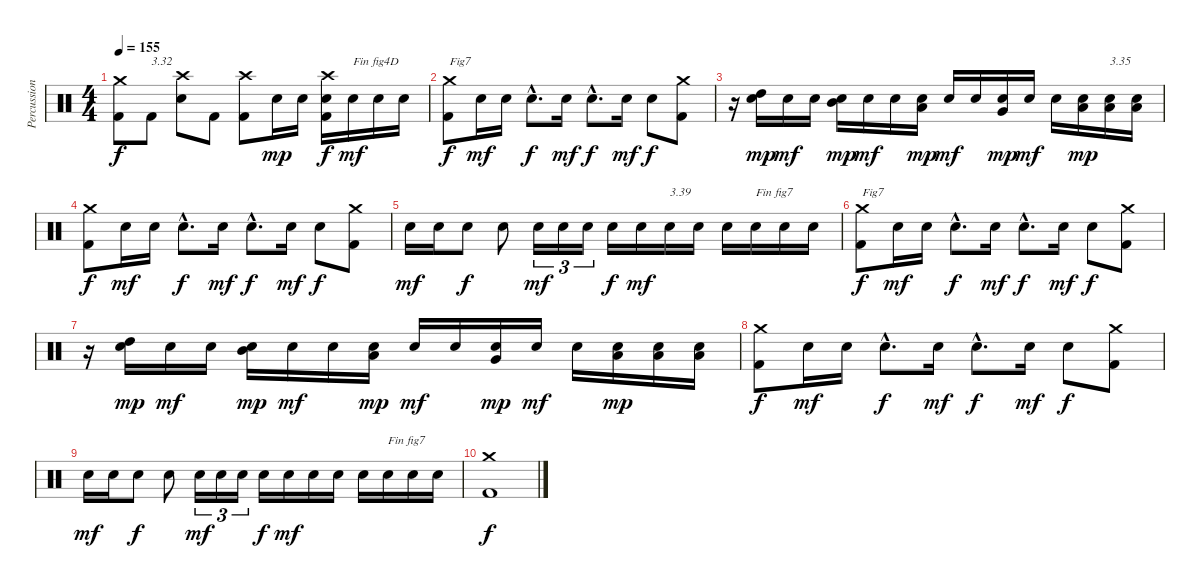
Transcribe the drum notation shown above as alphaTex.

\track ("Percussions" "Percussion") {instrument percussion}
\staff {score}
\articulation defaults
\ts (4 4)
\tempo 155
\clef neutral
\ks c
("Kick (hit) 2" "Crash medium (hit)").8{dy f} "Kick (hit) 2".8{txt "3.32"} ("Electric Snare (hit)" "Crash high (hit)").8 "Kick (hit) 2".8 ("Kick (hit) 2" "Crash high (hit)").8 "Electric Snare (hit)".16{dy mp} "Electric Snare (hit)".16 ("Kick (hit) 2" "Electric Snare (hit)" "Crash high (hit)").16{dy f} "Electric Snare (hit)".16{txt "Fin fig4D" dy mf} "Electric Snare (hit)".16 "Electric Snare (hit)".16 |
("Kick (hit) 2" "Crash medium (hit)").8{txt "Fig7" dy f} "Electric Snare (hit)".16{dy mf} "Electric Snare (hit)".16 "Electric Snare (hit)"{hac}.8{d dy f} "Electric Snare (hit)".16{dy mf} "Electric Snare (hit)"{hac}.8{d dy f} "Electric Snare (hit)".16{dy mf} "Electric Snare (hit)".8{dy f} ("Kick (hit) 2" "Crash medium (hit)").8 |
r.16 ("Electric Snare (hit)" "High Tom (hit)").16{dy mp} "Electric Snare (hit)".16{dy mf} "Electric Snare (hit)".16 ("Electric Snare (hit)" "Mid Tom (hit)").16{dy mp} "Electric Snare (hit)".16{dy mf} "Electric Snare (hit)".16 ("Electric Snare (hit)" "Low Tom (hit)").16{dy mp} "Electric Snare (hit)".16{dy mf} "Electric Snare (hit)".16 ("Electric Snare (hit)" "Very Low Tom (hit)").16{dy mp} "Electric Snare (hit)".16{dy mf} "Electric Snare (hit)".16 ("Electric Snare (hit)" "Low Floor Tom (hit)").16{dy mp} ("Electric Snare (hit)" "Low Floor Tom (hit)").16{txt "3.35"} ("Electric Snare (hit)" "Low Floor Tom (hit)").16 |
("Kick (hit) 2" "Crash medium (hit)").8{dy f} "Electric Snare (hit)".16{dy mf} "Electric Snare (hit)".16 "Electric Snare (hit)"{hac}.8{d dy f} "Electric Snare (hit)".16{dy mf} "Electric Snare (hit)"{hac}.8{d dy f} "Electric Snare (hit)".16{dy mf} "Electric Snare (hit)".8{dy f} ("Kick (hit) 2" "Crash medium (hit)").8 |
"Electric Snare (hit)".16{dy mf} "Electric Snare (hit)".16 "Electric Snare (hit)".8{dy f} "Electric Snare (hit)".8 "Electric Snare (hit)".16{tu (3 2) dy mf} "Electric Snare (hit)".16{tu (3 2)} "Electric Snare (hit)".16{tu (3 2)} "Electric Snare (hit)".16{dy f} "Electric Snare (hit)".16{dy mf} "Electric Snare (hit)".16{txt "3.39"} "Electric Snare (hit)".16 "Electric Snare (hit)".16 "Electric Snare (hit)".16{txt "Fin fig7"} "Electric Snare (hit)".16 "Electric Snare (hit)".16 |
("Kick (hit) 2" "Crash medium (hit)").8{txt "Fig7" dy f} "Electric Snare (hit)".16{dy mf} "Electric Snare (hit)".16 "Electric Snare (hit)"{hac}.8{d dy f} "Electric Snare (hit)".16{dy mf} "Electric Snare (hit)"{hac}.8{d dy f} "Electric Snare (hit)".16{dy mf} "Electric Snare (hit)".8{dy f} ("Kick (hit) 2" "Crash medium (hit)").8 |
r.16 ("Electric Snare (hit)" "High Tom (hit)").16{dy mp} "Electric Snare (hit)".16{dy mf} "Electric Snare (hit)".16 ("Electric Snare (hit)" "Mid Tom (hit)").16{dy mp} "Electric Snare (hit)".16{dy mf} "Electric Snare (hit)".16 ("Electric Snare (hit)" "Low Tom (hit)").16{dy mp} "Electric Snare (hit)".16{dy mf} "Electric Snare (hit)".16 ("Electric Snare (hit)" "Very Low Tom (hit)").16{dy mp} "Electric Snare (hit)".16{dy mf} "Electric Snare (hit)".16 ("Electric Snare (hit)" "Low Floor Tom (hit)").16{dy mp} ("Electric Snare (hit)" "Low Floor Tom (hit)").16 ("Electric Snare (hit)" "Low Floor Tom (hit)").16 |
("Kick (hit) 2" "Crash medium (hit)").8{dy f} "Electric Snare (hit)".16{dy mf} "Electric Snare (hit)".16 "Electric Snare (hit)"{hac}.8{d dy f} "Electric Snare (hit)".16{dy mf} "Electric Snare (hit)"{hac}.8{d dy f} "Electric Snare (hit)".16{dy mf} "Electric Snare (hit)".8{dy f} ("Kick (hit) 2" "Crash medium (hit)").8 |
"Electric Snare (hit)".16{dy mf} "Electric Snare (hit)".16 "Electric Snare (hit)".8{dy f} "Electric Snare (hit)".8 "Electric Snare (hit)".16{tu (3 2) dy mf} "Electric Snare (hit)".16{tu (3 2)} "Electric Snare (hit)".16{tu (3 2)} "Electric Snare (hit)".16{dy f} "Electric Snare (hit)".16{dy mf} "Electric Snare (hit)".16 "Electric Snare (hit)".16 "Electric Snare (hit)".16 "Electric Snare (hit)".16{txt "Fin fig7"} "Electric Snare (hit)".16 "Electric Snare (hit)".16 |
("Kick (hit) 2" "Crash medium (hit)").1{dy f}
